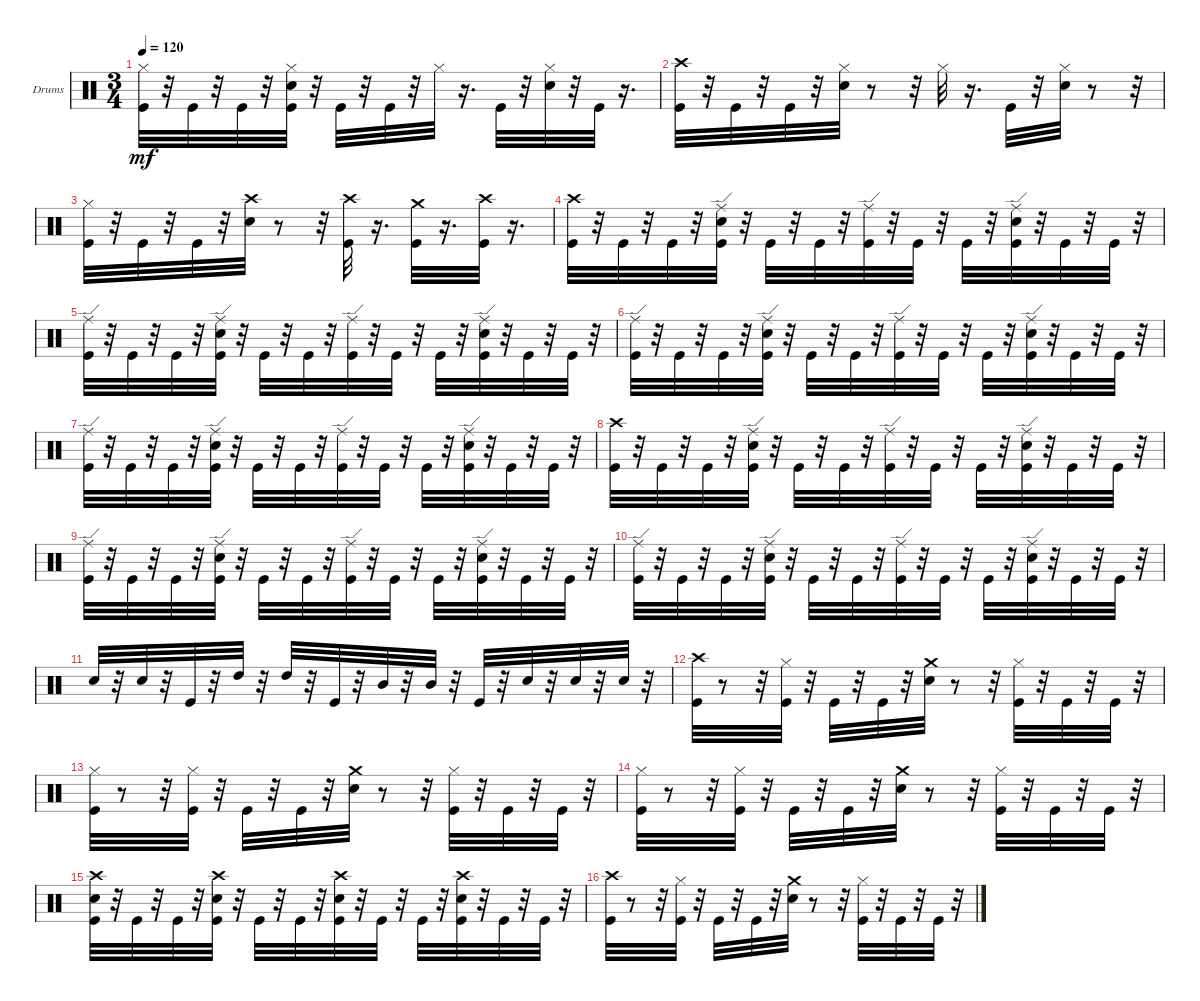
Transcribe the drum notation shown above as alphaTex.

\bracketExtendMode groupsimilarinstruments
\firstSystemTrackNameOrientation horizontal
\otherSystemsTrackNameOrientation horizontal
\track ("" "Drums") {instrument percussion}
\staff {score}
\articulation defaults
\ts (3 4)
\tempo 120
\clef neutral
\ks c
("Kick (hit)" "Hi-Hat (closed)").32{dy mf} r.32 "Kick (hit)".32 r.32 "Kick (hit)".32 r.32 ("Kick (hit)" "Snare (hit) 2" "Hi-Hat (closed)").32 r.32 "Kick (hit)".32 r.32 "Kick (hit)".32 r.32 "Hi-Hat (closed)".32 r.16{d} "Kick (hit)".32 r.32 ("Snare (hit) 2" "Hi-Hat (closed)").32 r.32 "Kick (hit)".32 r.16{d} |
("Crash high (hit)" "Kick (hit)").32 r.32 "Kick (hit)".32 r.32 "Kick (hit)".32 r.32 ("Hi-Hat (closed)" "Snare (hit) 2").32 r.8 r.32 "Hi-Hat (closed)".32 r.16{d} "Kick (hit)".32 r.32 ("Hi-Hat (closed)" "Snare (hit) 2").32 r.8 r.32 |
("Kick (hit)" "Hi-Hat (closed)").32 r.32 "Kick (hit)".32 r.32 "Kick (hit)".32 r.32 ("Crash high (hit)" "Snare (hit) 2").32 r.8 r.32 ("Crash high (hit)" "Kick (hit)").32 r.16{d} ("Crash medium (hit)" "Kick (hit)").32 r.16{d} ("Crash high (hit)" "Kick (hit)").32 r.16{d} |
("Crash high (hit)" "Kick (hit)").32 r.32 "Kick (hit)".32 r.32 "Kick (hit)".32 r.32 ("Kick (hit)" "Snare (hit) 2" "Ride (edge)").32 r.32 "Kick (hit)".32 r.32 "Kick (hit)".32 r.32 ("Kick (hit)" "Ride (edge)").32 r.32 "Kick (hit)".32 r.32 "Kick (hit)".32 r.32 ("Snare (hit) 2" "Kick (hit)" "Ride (edge)").32 r.32 "Kick (hit)".32 r.32 "Kick (hit)".32 r.32 |
("Ride (edge)" "Kick (hit)").32 r.32 "Kick (hit)".32 r.32 "Kick (hit)".32 r.32 ("Kick (hit)" "Snare (hit) 2" "Ride (edge)").32 r.32 "Kick (hit)".32 r.32 "Kick (hit)".32 r.32 ("Kick (hit)" "Ride (edge)").32 r.32 "Kick (hit)".32 r.32 "Kick (hit)".32 r.32 ("Snare (hit) 2" "Kick (hit)" "Ride (edge)").32 r.32 "Kick (hit)".32 r.32 "Kick (hit)".32 r.32 |
("Ride (edge)" "Kick (hit)").32 r.32 "Kick (hit)".32 r.32 "Kick (hit)".32 r.32 ("Kick (hit)" "Snare (hit) 2" "Ride (edge)").32 r.32 "Kick (hit)".32 r.32 "Kick (hit)".32 r.32 ("Kick (hit)" "Ride (edge)").32 r.32 "Kick (hit)".32 r.32 "Kick (hit)".32 r.32 ("Snare (hit) 2" "Kick (hit)" "Ride (edge)").32 r.32 "Kick (hit)".32 r.32 "Kick (hit)".32 r.32 |
("Ride (edge)" "Kick (hit)").32 r.32 "Kick (hit)".32 r.32 "Kick (hit)".32 r.32 ("Kick (hit)" "Snare (hit) 2" "Ride (edge)").32 r.32 "Kick (hit)".32 r.32 "Kick (hit)".32 r.32 ("Kick (hit)" "Ride (edge)").32 r.32 "Kick (hit)".32 r.32 "Kick (hit)".32 r.32 ("Snare (hit) 2" "Kick (hit)" "Ride (edge)").32 r.32 "Kick (hit)".32 r.32 "Kick (hit)".32 r.32 |
("Crash high (hit)" "Kick (hit)").32 r.32 "Kick (hit)".32 r.32 "Kick (hit)".32 r.32 ("Kick (hit)" "Snare (hit) 2" "Ride (edge)").32 r.32 "Kick (hit)".32 r.32 "Kick (hit)".32 r.32 ("Kick (hit)" "Ride (edge)").32 r.32 "Kick (hit)".32 r.32 "Kick (hit)".32 r.32 ("Snare (hit) 2" "Kick (hit)" "Ride (edge)").32 r.32 "Kick (hit)".32 r.32 "Kick (hit)".32 r.32 |
("Ride (edge)" "Kick (hit)").32 r.32 "Kick (hit)".32 r.32 "Kick (hit)".32 r.32 ("Kick (hit)" "Snare (hit) 2" "Ride (edge)").32 r.32 "Kick (hit)".32 r.32 "Kick (hit)".32 r.32 ("Kick (hit)" "Ride (edge)").32 r.32 "Kick (hit)".32 r.32 "Kick (hit)".32 r.32 ("Snare (hit) 2" "Kick (hit)" "Ride (edge)").32 r.32 "Kick (hit)".32 r.32 "Kick (hit)".32 r.32 |
("Ride (edge)" "Kick (hit)").32 r.32 "Kick (hit)".32 r.32 "Kick (hit)".32 r.32 ("Kick (hit)" "Snare (hit) 2" "Ride (edge)").32 r.32 "Kick (hit)".32 r.32 "Kick (hit)".32 r.32 ("Kick (hit)" "Ride (edge)").32 r.32 "Kick (hit)".32 r.32 "Kick (hit)".32 r.32 ("Snare (hit) 2" "Kick (hit)" "Ride (edge)").32 r.32 "Kick (hit)".32 r.32 "Kick (hit)".32 r.32 |
"Snare (hit) 2".32 r.32 "Snare (hit) 2".32 r.32 "Kick (hit)".32 r.32 "High Tom (hit)".32 r.32 "High Tom (hit)".32 r.32 "Kick (hit)".32 r.32 "Mid Tom (hit)".32 r.32 "Mid Tom (hit)".32 r.32 "Kick (hit)".32 r.32 "Snare (hit) 2".32 r.32 "Snare (hit) 2".32 r.32 "Snare (hit) 2".32 r.32 |
("Crash high (hit)" "Kick (hit)").32 r.8 r.32 ("Hi-Hat (closed)" "Kick (hit)").32 r.32 "Kick (hit)".32 r.32 "Kick (hit)".32 r.32 ("Crash medium (hit)" "Snare (hit) 2").32 r.8 r.32 ("Kick (hit)" "Hi-Hat (closed)").32 r.32 "Kick (hit)".32 r.32 "Kick (hit)".32 r.32 |
("Hi-Hat (closed)" "Kick (hit)").32 r.8 r.32 ("Hi-Hat (closed)" "Kick (hit)").32 r.32 "Kick (hit)".32 r.32 "Kick (hit)".32 r.32 ("Crash medium (hit)" "Snare (hit) 2").32 r.8 r.32 ("Hi-Hat (closed)" "Kick (hit)").32 r.32 "Kick (hit)".32 r.32 "Kick (hit)".32 r.32 |
("Hi-Hat (closed)" "Kick (hit)").32 r.8 r.32 ("Hi-Hat (closed)" "Kick (hit)").32 r.32 "Kick (hit)".32 r.32 "Kick (hit)".32 r.32 ("Crash medium (hit)" "Snare (hit) 2").32 r.8 r.32 ("Hi-Hat (closed)" "Kick (hit)").32 r.32 "Kick (hit)".32 r.32 "Kick (hit)".32 r.32 |
("Kick (hit)" "Snare (hit) 2" "Crash high (hit)").32 r.32 "Kick (hit)".32 r.32 "Kick (hit)".32 r.32 ("Kick (hit)" "Snare (hit) 2" "Crash high (hit)").32 r.32 "Kick (hit)".32 r.32 "Kick (hit)".32 r.32 ("Kick (hit)" "Snare (hit) 2" "Crash high (hit)").32 r.32 "Kick (hit)".32 r.32 "Kick (hit)".32 r.32 ("Kick (hit)" "Snare (hit) 2" "Crash high (hit)").32 r.32 "Kick (hit)".32 r.32 "Kick (hit)".32 r.32 |
("Crash high (hit)" "Kick (hit)").32 r.8 r.32 ("Hi-Hat (closed)" "Kick (hit)").32 r.32 "Kick (hit)".32 r.32 "Kick (hit)".32 r.32 ("Crash medium (hit)" "Snare (hit) 2").32 r.8 r.32 ("Kick (hit)" "Hi-Hat (closed)").32 r.32 "Kick (hit)".32 r.32 "Kick (hit)".32 r.32
